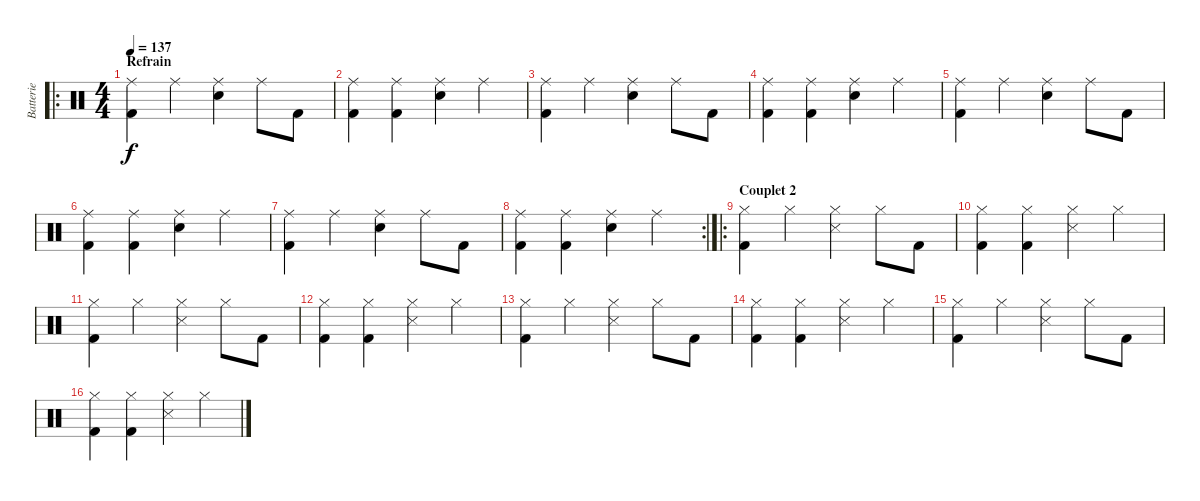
\track ("Batterie" "Batterie") {instrument percussion}
\staff {score}
\articulation defaults
\ro
\ts (4 4)
\section ("" "Refrain")
\tempo 137
\clef neutral
\ks c
("Kick (hit) 2" "Ride (middle)").4{dy f} "Ride (middle)".4 ("Snare (hit) 2" "Ride (middle)").4 "Ride (middle)".8 "Kick (hit) 2".8 |
("Kick (hit) 2" "Ride (middle)").4 ("Kick (hit) 2" "Ride (middle)").4 ("Snare (hit) 2" "Ride (middle)").4 "Ride (middle)".4 |
("Kick (hit) 2" "Ride (middle)").4 "Ride (middle)".4 ("Snare (hit) 2" "Ride (middle)").4 "Ride (middle)".8 "Kick (hit) 2".8 |
("Kick (hit) 2" "Ride (middle)").4 ("Kick (hit) 2" "Ride (middle)").4 ("Snare (hit) 2" "Ride (middle)").4 "Ride (middle)".4 |
("Kick (hit) 2" "Ride (middle)").4 "Ride (middle)".4 ("Snare (hit) 2" "Ride (middle)").4 "Ride (middle)".8 "Kick (hit) 2".8 |
("Kick (hit) 2" "Ride (middle)").4 ("Kick (hit) 2" "Ride (middle)").4 ("Snare (hit) 2" "Ride (middle)").4 "Ride (middle)".4 |
("Kick (hit) 2" "Ride (middle)").4 "Ride (middle)".4 ("Snare (hit) 2" "Ride (middle)").4 "Ride (middle)".8 "Kick (hit) 2".8 |
\rc 2
("Kick (hit) 2" "Ride (middle)").4 ("Kick (hit) 2" "Ride (middle)").4 ("Snare (hit) 2" "Ride (middle)").4 "Ride (middle)".4 |
\ro
\section ("" "Couplet 2")
("Kick (hit) 2" "Hi-Hat (closed)").4 "Hi-Hat (closed)".4 ("Snare (side stick) 3" "Hi-Hat (closed)").4 "Hi-Hat (closed)".8 "Kick (hit) 2".8 |
("Kick (hit) 2" "Hi-Hat (closed)").4 ("Kick (hit) 2" "Hi-Hat (closed)").4 ("Snare (side stick) 3" "Hi-Hat (closed)").4 "Hi-Hat (closed)".4 |
("Kick (hit) 2" "Hi-Hat (closed)").4 "Hi-Hat (closed)".4 ("Snare (side stick) 3" "Hi-Hat (closed)").4 "Hi-Hat (closed)".8 "Kick (hit) 2".8 |
("Kick (hit) 2" "Hi-Hat (closed)").4 ("Kick (hit) 2" "Hi-Hat (closed)").4 ("Snare (side stick) 3" "Hi-Hat (closed)").4 "Hi-Hat (closed)".4 |
("Kick (hit) 2" "Hi-Hat (closed)").4 "Hi-Hat (closed)".4 ("Snare (side stick) 3" "Hi-Hat (closed)").4 "Hi-Hat (closed)".8 "Kick (hit) 2".8 |
("Kick (hit) 2" "Hi-Hat (closed)").4 ("Kick (hit) 2" "Hi-Hat (closed)").4 ("Snare (side stick) 3" "Hi-Hat (closed)").4 "Hi-Hat (closed)".4 |
("Kick (hit) 2" "Hi-Hat (closed)").4 "Hi-Hat (closed)".4 ("Snare (side stick) 3" "Hi-Hat (closed)").4 "Hi-Hat (closed)".8 "Kick (hit) 2".8 |
("Kick (hit) 2" "Hi-Hat (closed)").4 ("Kick (hit) 2" "Hi-Hat (closed)").4 ("Snare (side stick) 3" "Hi-Hat (closed)").4 "Hi-Hat (closed)".4
